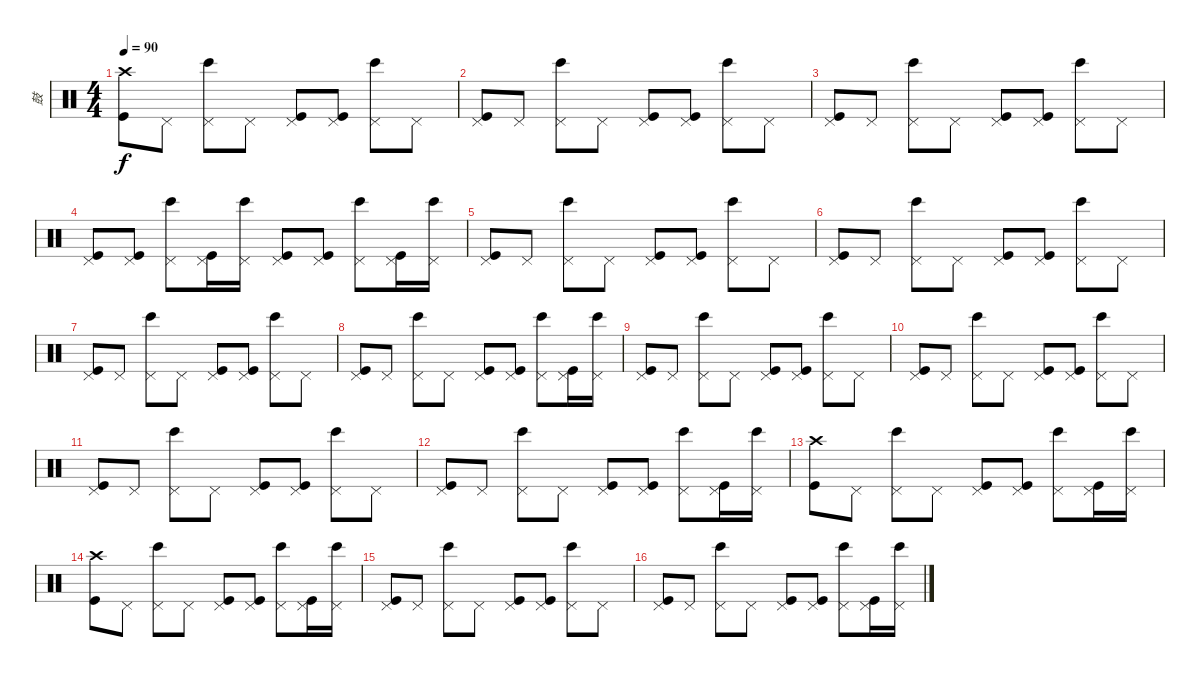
\track ("鼓" "鼓") {instrument percussion}
\staff {score}
\articulation defaults
\ts (4 4)
\tempo 90
\clef neutral
\ks c
("Crash high (hit)" "Kick (hit)").8{dy f} "Pedal Hi-Hat (hit)".8 ("Pedal Hi-Hat (hit)" "Bongo High (hit)").8 "Pedal Hi-Hat (hit)".8 ("Pedal Hi-Hat (hit)" "Kick (hit)").8 ("Pedal Hi-Hat (hit)" "Kick (hit)").8 ("Pedal Hi-Hat (hit)" "Bongo High (hit)").8 "Pedal Hi-Hat (hit)".8 |
("Pedal Hi-Hat (hit)" "Kick (hit)").8 "Pedal Hi-Hat (hit)".8 ("Pedal Hi-Hat (hit)" "Bongo High (hit)").8 "Pedal Hi-Hat (hit)".8 ("Pedal Hi-Hat (hit)" "Kick (hit)").8 ("Pedal Hi-Hat (hit)" "Kick (hit)").8 ("Pedal Hi-Hat (hit)" "Bongo High (hit)").8 "Pedal Hi-Hat (hit)".8 |
("Pedal Hi-Hat (hit)" "Kick (hit)").8 "Pedal Hi-Hat (hit)".8 ("Pedal Hi-Hat (hit)" "Bongo High (hit)").8 "Pedal Hi-Hat (hit)".8 ("Pedal Hi-Hat (hit)" "Kick (hit)").8 ("Pedal Hi-Hat (hit)" "Kick (hit)").8 ("Pedal Hi-Hat (hit)" "Bongo High (hit)").8 "Pedal Hi-Hat (hit)".8 |
("Pedal Hi-Hat (hit)" "Kick (hit)").8 ("Pedal Hi-Hat (hit)" "Kick (hit)").8 ("Pedal Hi-Hat (hit)" "Bongo High (hit)").8 ("Pedal Hi-Hat (hit)" "Kick (hit)").16 ("Pedal Hi-Hat (hit)" "Bongo High (hit)").16 ("Pedal Hi-Hat (hit)" "Kick (hit)").8 ("Pedal Hi-Hat (hit)" "Kick (hit)").8 ("Pedal Hi-Hat (hit)" "Bongo High (hit)").8 ("Pedal Hi-Hat (hit)" "Kick (hit)").16 ("Pedal Hi-Hat (hit)" "Bongo High (hit)").16 |
("Pedal Hi-Hat (hit)" "Kick (hit)").8 "Pedal Hi-Hat (hit)".8 ("Pedal Hi-Hat (hit)" "Bongo High (hit)").8 "Pedal Hi-Hat (hit)".8 ("Pedal Hi-Hat (hit)" "Kick (hit)").8 ("Pedal Hi-Hat (hit)" "Kick (hit)").8 ("Pedal Hi-Hat (hit)" "Bongo High (hit)").8 "Pedal Hi-Hat (hit)".8 |
("Pedal Hi-Hat (hit)" "Kick (hit)").8 "Pedal Hi-Hat (hit)".8 ("Pedal Hi-Hat (hit)" "Bongo High (hit)").8 "Pedal Hi-Hat (hit)".8 ("Pedal Hi-Hat (hit)" "Kick (hit)").8 ("Pedal Hi-Hat (hit)" "Kick (hit)").8 ("Pedal Hi-Hat (hit)" "Bongo High (hit)").8 "Pedal Hi-Hat (hit)".8 |
("Pedal Hi-Hat (hit)" "Kick (hit)").8 "Pedal Hi-Hat (hit)".8 ("Pedal Hi-Hat (hit)" "Bongo High (hit)").8 "Pedal Hi-Hat (hit)".8 ("Pedal Hi-Hat (hit)" "Kick (hit)").8 ("Pedal Hi-Hat (hit)" "Kick (hit)").8 ("Pedal Hi-Hat (hit)" "Bongo High (hit)").8 "Pedal Hi-Hat (hit)".8 |
("Pedal Hi-Hat (hit)" "Kick (hit)").8 "Pedal Hi-Hat (hit)".8 ("Pedal Hi-Hat (hit)" "Bongo High (hit)").8 "Pedal Hi-Hat (hit)".8 ("Pedal Hi-Hat (hit)" "Kick (hit)").8 ("Pedal Hi-Hat (hit)" "Kick (hit)").8 ("Pedal Hi-Hat (hit)" "Bongo High (hit)").8 ("Pedal Hi-Hat (hit)" "Kick (hit)").16 ("Pedal Hi-Hat (hit)" "Bongo High (hit)").16 |
("Pedal Hi-Hat (hit)" "Kick (hit)").8 "Pedal Hi-Hat (hit)".8 ("Pedal Hi-Hat (hit)" "Bongo High (hit)").8 "Pedal Hi-Hat (hit)".8 ("Pedal Hi-Hat (hit)" "Kick (hit)").8 ("Pedal Hi-Hat (hit)" "Kick (hit)").8 ("Pedal Hi-Hat (hit)" "Bongo High (hit)").8 "Pedal Hi-Hat (hit)".8 |
("Pedal Hi-Hat (hit)" "Kick (hit)").8 "Pedal Hi-Hat (hit)".8 ("Pedal Hi-Hat (hit)" "Bongo High (hit)").8 "Pedal Hi-Hat (hit)".8 ("Pedal Hi-Hat (hit)" "Kick (hit)").8 ("Pedal Hi-Hat (hit)" "Kick (hit)").8 ("Pedal Hi-Hat (hit)" "Bongo High (hit)").8 "Pedal Hi-Hat (hit)".8 |
("Pedal Hi-Hat (hit)" "Kick (hit)").8 "Pedal Hi-Hat (hit)".8 ("Pedal Hi-Hat (hit)" "Bongo High (hit)").8 "Pedal Hi-Hat (hit)".8 ("Pedal Hi-Hat (hit)" "Kick (hit)").8 ("Pedal Hi-Hat (hit)" "Kick (hit)").8 ("Pedal Hi-Hat (hit)" "Bongo High (hit)").8 "Pedal Hi-Hat (hit)".8 |
("Pedal Hi-Hat (hit)" "Kick (hit)").8 "Pedal Hi-Hat (hit)".8 ("Pedal Hi-Hat (hit)" "Bongo High (hit)").8 "Pedal Hi-Hat (hit)".8 ("Pedal Hi-Hat (hit)" "Kick (hit)").8 ("Pedal Hi-Hat (hit)" "Kick (hit)").8 ("Pedal Hi-Hat (hit)" "Bongo High (hit)").8 ("Pedal Hi-Hat (hit)" "Kick (hit)").16 ("Pedal Hi-Hat (hit)" "Bongo High (hit)").16 |
("Crash high (hit)" "Kick (hit)").8 "Pedal Hi-Hat (hit)".8 ("Pedal Hi-Hat (hit)" "Bongo High (hit)").8 "Pedal Hi-Hat (hit)".8 ("Pedal Hi-Hat (hit)" "Kick (hit)").8 ("Pedal Hi-Hat (hit)" "Kick (hit)").8 ("Pedal Hi-Hat (hit)" "Bongo High (hit)").8 ("Pedal Hi-Hat (hit)" "Kick (hit)").16 ("Pedal Hi-Hat (hit)" "Bongo High (hit)").16 |
("Crash high (hit)" "Kick (hit)").8 "Pedal Hi-Hat (hit)".8 ("Pedal Hi-Hat (hit)" "Bongo High (hit)").8 "Pedal Hi-Hat (hit)".8 ("Pedal Hi-Hat (hit)" "Kick (hit)").8 ("Pedal Hi-Hat (hit)" "Kick (hit)").8 ("Pedal Hi-Hat (hit)" "Bongo High (hit)").8 ("Pedal Hi-Hat (hit)" "Kick (hit)").16 ("Pedal Hi-Hat (hit)" "Bongo High (hit)").16 |
("Pedal Hi-Hat (hit)" "Kick (hit)").8 "Pedal Hi-Hat (hit)".8 ("Pedal Hi-Hat (hit)" "Bongo High (hit)").8 "Pedal Hi-Hat (hit)".8 ("Pedal Hi-Hat (hit)" "Kick (hit)").8 ("Pedal Hi-Hat (hit)" "Kick (hit)").8 ("Pedal Hi-Hat (hit)" "Bongo High (hit)").8 "Pedal Hi-Hat (hit)".8 |
("Pedal Hi-Hat (hit)" "Kick (hit)").8 "Pedal Hi-Hat (hit)".8 ("Pedal Hi-Hat (hit)" "Bongo High (hit)").8 "Pedal Hi-Hat (hit)".8 ("Pedal Hi-Hat (hit)" "Kick (hit)").8 ("Pedal Hi-Hat (hit)" "Kick (hit)").8 ("Pedal Hi-Hat (hit)" "Bongo High (hit)").8 ("Pedal Hi-Hat (hit)" "Kick (hit)").16 ("Pedal Hi-Hat (hit)" "Bongo High (hit)").16
